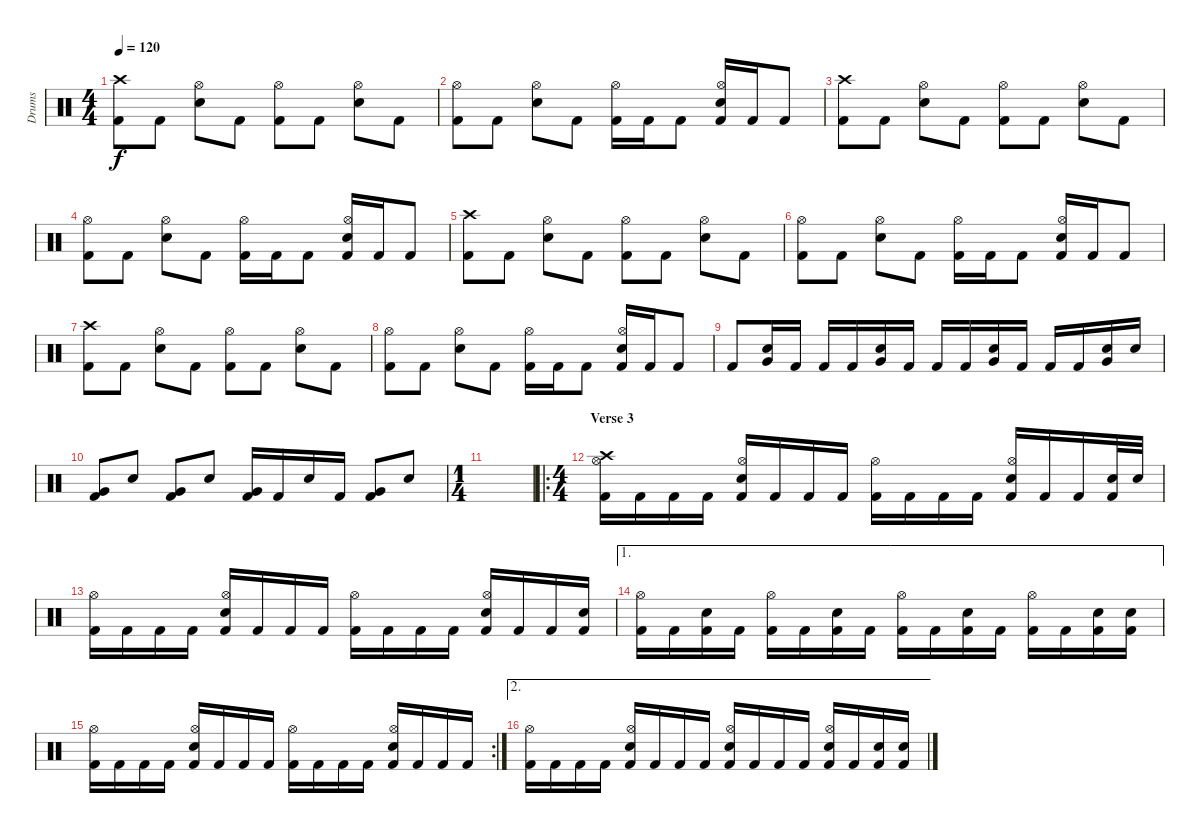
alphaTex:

\track ("Drums" "Drums") {instrument percussion}
\staff {score}
\articulation defaults
\ts (4 4)
\tempo 120
\clef neutral
\ks c
("Crash high (hit)" "Kick (hit) 2").8{dy f} "Kick (hit) 2".8 ("Hi-Hat (open)" "Electric Snare (hit)").8 "Kick (hit) 2".8 ("Hi-Hat (open)" "Kick (hit) 2").8 "Kick (hit) 2".8 ("Hi-Hat (open)" "Electric Snare (hit)").8 "Kick (hit) 2".8 |
("Hi-Hat (open)" "Kick (hit) 2").8 "Kick (hit) 2".8 ("Hi-Hat (open)" "Electric Snare (hit)").8 "Kick (hit) 2".8 ("Hi-Hat (open)" "Kick (hit) 2").16 "Kick (hit) 2".16 "Kick (hit) 2".8 ("Hi-Hat (open)" "Electric Snare (hit)" "Kick (hit) 2").16 "Kick (hit) 2".16 "Kick (hit) 2".8 |
("Crash high (hit)" "Kick (hit) 2").8 "Kick (hit) 2".8 ("Hi-Hat (open)" "Electric Snare (hit)").8 "Kick (hit) 2".8 ("Hi-Hat (open)" "Kick (hit) 2").8 "Kick (hit) 2".8 ("Hi-Hat (open)" "Electric Snare (hit)").8 "Kick (hit) 2".8 |
("Hi-Hat (open)" "Kick (hit) 2").8 "Kick (hit) 2".8 ("Hi-Hat (open)" "Electric Snare (hit)").8 "Kick (hit) 2".8 ("Hi-Hat (open)" "Kick (hit) 2").16 "Kick (hit) 2".16 "Kick (hit) 2".8 ("Hi-Hat (open)" "Electric Snare (hit)" "Kick (hit) 2").16 "Kick (hit) 2".16 "Kick (hit) 2".8 |
("Crash high (hit)" "Kick (hit) 2").8 "Kick (hit) 2".8 ("Hi-Hat (open)" "Electric Snare (hit)").8 "Kick (hit) 2".8 ("Hi-Hat (open)" "Kick (hit) 2").8 "Kick (hit) 2".8 ("Hi-Hat (open)" "Electric Snare (hit)").8 "Kick (hit) 2".8 |
("Hi-Hat (open)" "Kick (hit) 2").8 "Kick (hit) 2".8 ("Hi-Hat (open)" "Electric Snare (hit)").8 "Kick (hit) 2".8 ("Hi-Hat (open)" "Kick (hit) 2").16 "Kick (hit) 2".16 "Kick (hit) 2".8 ("Hi-Hat (open)" "Electric Snare (hit)" "Kick (hit) 2").16 "Kick (hit) 2".16 "Kick (hit) 2".8 |
("Crash high (hit)" "Kick (hit) 2").8 "Kick (hit) 2".8 ("Hi-Hat (open)" "Electric Snare (hit)").8 "Kick (hit) 2".8 ("Hi-Hat (open)" "Kick (hit) 2").8 "Kick (hit) 2".8 ("Hi-Hat (open)" "Electric Snare (hit)").8 "Kick (hit) 2".8 |
("Hi-Hat (open)" "Kick (hit) 2").8 "Kick (hit) 2".8 ("Hi-Hat (open)" "Electric Snare (hit)").8 "Kick (hit) 2".8 ("Hi-Hat (open)" "Kick (hit) 2").16 "Kick (hit) 2".16 "Kick (hit) 2".8 ("Hi-Hat (open)" "Electric Snare (hit)" "Kick (hit) 2").16 "Kick (hit) 2".16 "Kick (hit) 2".8 |
"Kick (hit) 2".8 ("Very Low Tom (hit)" "Electric Snare (hit)").16 "Kick (hit) 2".16 "Kick (hit) 2".16 "Kick (hit) 2".16 ("Very Low Tom (hit)" "Electric Snare (hit)").16 "Kick (hit) 2".16 "Kick (hit) 2".16 "Kick (hit) 2".16 ("Very Low Tom (hit)" "Electric Snare (hit)").16 "Kick (hit) 2".16 "Kick (hit) 2".16 "Kick (hit) 2".16 ("Very Low Tom (hit)" "Electric Snare (hit)").16 "Electric Snare (hit)".16 |
("Very Low Tom (hit)" "Kick (hit) 2").8 "Electric Snare (hit)".8 ("Very Low Tom (hit)" "Kick (hit) 2").8 "Electric Snare (hit)".8 ("Very Low Tom (hit)" "Kick (hit) 2").16 "Kick (hit) 2".16 "Electric Snare (hit)".16 "Kick (hit) 2".16 ("Very Low Tom (hit)" "Kick (hit) 2").8 "Electric Snare (hit)".8 |
\ts (1 4)
|
\ro
\ts (4 4)
\section ("" "Verse 3")
("Crash high (hit)" "Hi-Hat (open)" "Kick (hit) 2").16 "Kick (hit) 2".16 "Kick (hit) 2".16 "Kick (hit) 2".16 ("Hi-Hat (open)" "Electric Snare (hit)" "Kick (hit) 2").16 "Kick (hit) 2".16 "Kick (hit) 2".16 "Kick (hit) 2".16 ("Hi-Hat (open)" "Kick (hit) 2").16 "Kick (hit) 2".16 "Kick (hit) 2".16 "Kick (hit) 2".16 ("Hi-Hat (open)" "Electric Snare (hit)" "Kick (hit) 2").16 "Kick (hit) 2".16 "Kick (hit) 2".16 ("Electric Snare (hit)" "Kick (hit) 2").32 "Electric Snare (hit)".32 |
("Hi-Hat (open)" "Kick (hit) 2").16 "Kick (hit) 2".16 "Kick (hit) 2".16 "Kick (hit) 2".16 ("Hi-Hat (open)" "Electric Snare (hit)" "Kick (hit) 2").16 "Kick (hit) 2".16 "Kick (hit) 2".16 "Kick (hit) 2".16 ("Hi-Hat (open)" "Kick (hit) 2").16 "Kick (hit) 2".16 "Kick (hit) 2".16 "Kick (hit) 2".16 ("Hi-Hat (open)" "Electric Snare (hit)" "Kick (hit) 2").16 "Kick (hit) 2".16 "Kick (hit) 2".16 ("Electric Snare (hit)" "Kick (hit) 2").16 |
\ae 1
("Hi-Hat (open)" "Kick (hit) 2").16 "Kick (hit) 2".16 ("Electric Snare (hit)" "Kick (hit) 2").16 "Kick (hit) 2".16 ("Hi-Hat (open)" "Kick (hit) 2").16 "Kick (hit) 2".16 ("Electric Snare (hit)" "Kick (hit) 2").16 "Kick (hit) 2".16 ("Hi-Hat (open)" "Kick (hit) 2").16 "Kick (hit) 2".16 ("Electric Snare (hit)" "Kick (hit) 2").16 "Kick (hit) 2".16 ("Hi-Hat (open)" "Kick (hit) 2").16 "Kick (hit) 2".16 ("Electric Snare (hit)" "Kick (hit) 2").16 ("Electric Snare (hit)" "Kick (hit) 2").16 |
\rc 2
("Hi-Hat (open)" "Kick (hit) 2").16 "Kick (hit) 2".16 "Kick (hit) 2".16 "Kick (hit) 2".16 ("Hi-Hat (open)" "Electric Snare (hit)" "Kick (hit) 2").16 "Kick (hit) 2".16 "Kick (hit) 2".16 "Kick (hit) 2".16 ("Hi-Hat (open)" "Kick (hit) 2").16 "Kick (hit) 2".16 "Kick (hit) 2".16 "Kick (hit) 2".16 ("Hi-Hat (open)" "Electric Snare (hit)" "Kick (hit) 2").16 "Kick (hit) 2".16 "Kick (hit) 2".16 "Kick (hit) 2".16 |
\ae 2
("Hi-Hat (open)" "Kick (hit) 2").16 "Kick (hit) 2".16 "Kick (hit) 2".16 "Kick (hit) 2".16 ("Hi-Hat (open)" "Electric Snare (hit)" "Kick (hit) 2").16 "Kick (hit) 2".16 "Kick (hit) 2".16 "Kick (hit) 2".16 ("Hi-Hat (open)" "Electric Snare (hit)" "Kick (hit) 2").16 "Kick (hit) 2".16 "Kick (hit) 2".16 "Kick (hit) 2".16 ("Hi-Hat (open)" "Electric Snare (hit)" "Kick (hit) 2").16 "Kick (hit) 2".16 ("Electric Snare (hit)" "Kick (hit) 2").16 ("Electric Snare (hit)" "Kick (hit) 2").16
